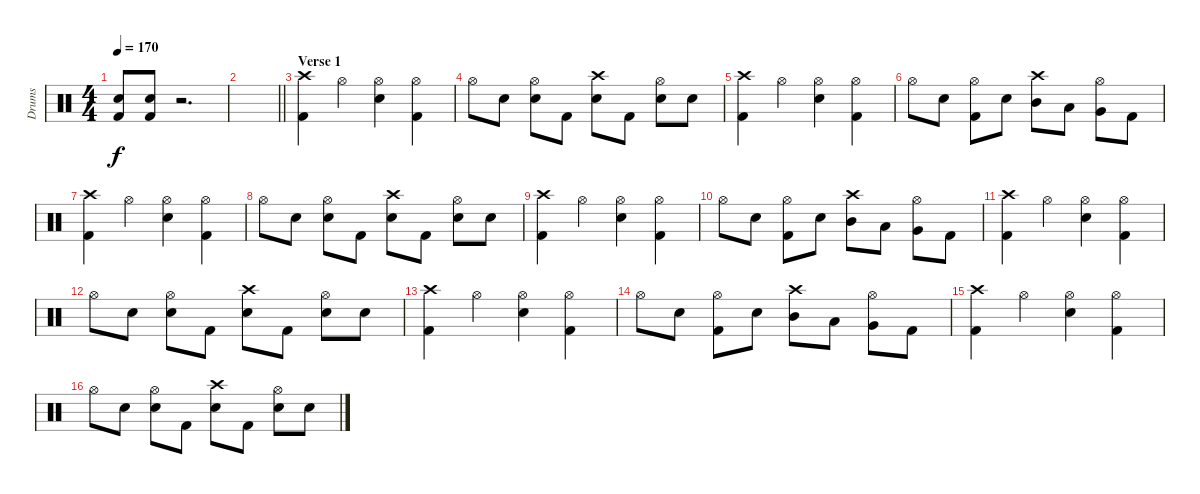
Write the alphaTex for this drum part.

\track ("Drums" "Drums") {instrument percussion}
\staff {score}
\articulation defaults
\ts (4 4)
\tempo 170
\clef neutral
\ks c
("Snare (hit) 2" "Kick (hit) 2").8{dy f} ("Snare (hit) 2" "Kick (hit) 2").8 r.2{d} |
\barLineRight lightlight
|
\section ("" "Verse 1 ")
("Crash high (hit)" "Kick (hit) 2").4 "Hi-Hat (open)".4 ("Hi-Hat (open)" "Snare (hit) 2").4 ("Hi-Hat (open)" "Kick (hit) 2").4 |
"Hi-Hat (open)".8 "Snare (hit) 2".8 ("Hi-Hat (open)" "Snare (hit) 2").8 "Kick (hit) 2".8 ("Crash high (hit)" "Snare (hit) 2").8 "Kick (hit) 2".8 ("Hi-Hat (open)" "Snare (hit) 2").8 "Snare (hit) 2".8 |
("Crash high (hit)" "Kick (hit) 2").4 "Hi-Hat (open)".4 ("Hi-Hat (open)" "Snare (hit) 2").4 ("Hi-Hat (open)" "Kick (hit) 2").4 |
"Hi-Hat (open)".8 "Snare (hit) 2".8 ("Hi-Hat (open)" "Kick (hit) 2").8 "Snare (hit) 2".8 ("Crash high (hit)" "Mid Tom (hit)").8 "Low Tom (hit)".8 ("Hi-Hat (open)" "Very Low Tom (hit)").8 "Kick (hit) 2".8 |
("Crash high (hit)" "Kick (hit) 2").4 "Hi-Hat (open)".4 ("Hi-Hat (open)" "Snare (hit) 2").4 ("Hi-Hat (open)" "Kick (hit) 2").4 |
"Hi-Hat (open)".8 "Snare (hit) 2".8 ("Hi-Hat (open)" "Snare (hit) 2").8 "Kick (hit) 2".8 ("Crash high (hit)" "Snare (hit) 2").8 "Kick (hit) 2".8 ("Hi-Hat (open)" "Snare (hit) 2").8 "Snare (hit) 2".8 |
("Crash high (hit)" "Kick (hit) 2").4 "Hi-Hat (open)".4 ("Hi-Hat (open)" "Snare (hit) 2").4 ("Hi-Hat (open)" "Kick (hit) 2").4 |
"Hi-Hat (open)".8 "Snare (hit) 2".8 ("Hi-Hat (open)" "Kick (hit) 2").8 "Snare (hit) 2".8 ("Crash high (hit)" "Mid Tom (hit)").8 "Low Tom (hit)".8 ("Hi-Hat (open)" "Very Low Tom (hit)").8 "Kick (hit) 2".8 |
("Crash high (hit)" "Kick (hit) 2").4 "Hi-Hat (open)".4 ("Hi-Hat (open)" "Snare (hit) 2").4 ("Hi-Hat (open)" "Kick (hit) 2").4 |
"Hi-Hat (open)".8 "Snare (hit) 2".8 ("Hi-Hat (open)" "Snare (hit) 2").8 "Kick (hit) 2".8 ("Crash high (hit)" "Snare (hit) 2").8 "Kick (hit) 2".8 ("Hi-Hat (open)" "Snare (hit) 2").8 "Snare (hit) 2".8 |
("Crash high (hit)" "Kick (hit) 2").4 "Hi-Hat (open)".4 ("Hi-Hat (open)" "Snare (hit) 2").4 ("Hi-Hat (open)" "Kick (hit) 2").4 |
"Hi-Hat (open)".8 "Snare (hit) 2".8 ("Hi-Hat (open)" "Kick (hit) 2").8 "Snare (hit) 2".8 ("Crash high (hit)" "Mid Tom (hit)").8 "Low Tom (hit)".8 ("Hi-Hat (open)" "Very Low Tom (hit)").8 "Kick (hit) 2".8 |
("Crash high (hit)" "Kick (hit) 2").4 "Hi-Hat (open)".4 ("Hi-Hat (open)" "Snare (hit) 2").4 ("Hi-Hat (open)" "Kick (hit) 2").4 |
"Hi-Hat (open)".8 "Snare (hit) 2".8 ("Hi-Hat (open)" "Snare (hit) 2").8 "Kick (hit) 2".8 ("Crash high (hit)" "Snare (hit) 2").8 "Kick (hit) 2".8 ("Hi-Hat (open)" "Snare (hit) 2").8 "Snare (hit) 2".8
